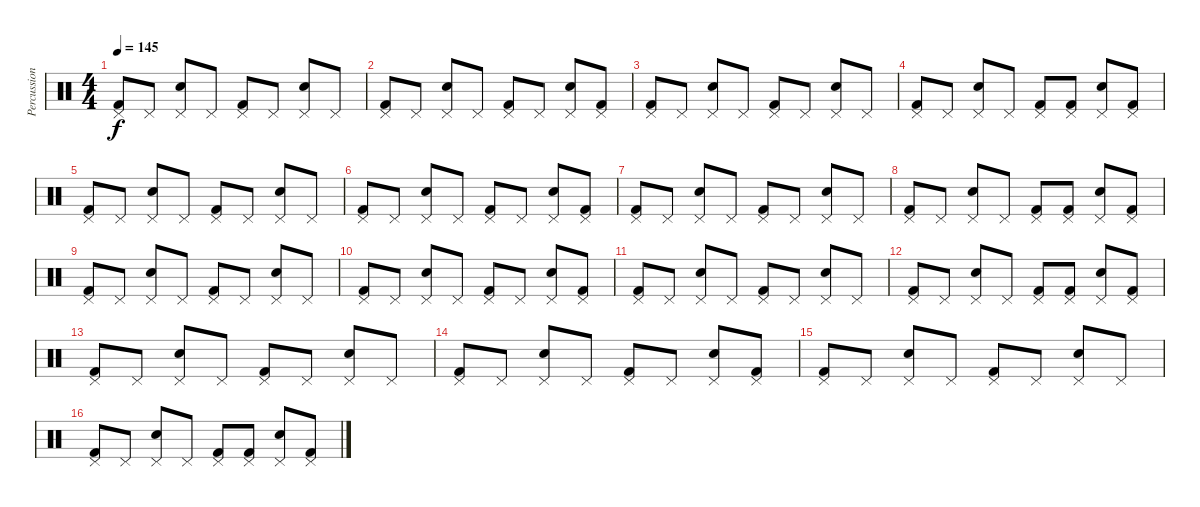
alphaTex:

\track ("Percussion" "Percussion") {instrument percussion}
\staff {score}
\articulation defaults
\ts (4 4)
\tempo 145
\clef neutral
\ks c
("Pedal Hi-Hat (hit)" "Kick (hit) 2").8{dy f} "Pedal Hi-Hat (hit)".8 ("Pedal Hi-Hat (hit)" "Electric Snare (hit)").8 "Pedal Hi-Hat (hit)".8 ("Pedal Hi-Hat (hit)" "Kick (hit) 2").8 "Pedal Hi-Hat (hit)".8 ("Pedal Hi-Hat (hit)" "Electric Snare (hit)").8 "Pedal Hi-Hat (hit)".8 |
("Pedal Hi-Hat (hit)" "Kick (hit) 2").8 "Pedal Hi-Hat (hit)".8 ("Pedal Hi-Hat (hit)" "Electric Snare (hit)").8 "Pedal Hi-Hat (hit)".8 ("Pedal Hi-Hat (hit)" "Kick (hit) 2").8 "Pedal Hi-Hat (hit)".8 ("Pedal Hi-Hat (hit)" "Electric Snare (hit)").8 ("Pedal Hi-Hat (hit)" "Kick (hit) 2").8 |
("Pedal Hi-Hat (hit)" "Kick (hit) 2").8 "Pedal Hi-Hat (hit)".8 ("Pedal Hi-Hat (hit)" "Electric Snare (hit)").8 "Pedal Hi-Hat (hit)".8 ("Pedal Hi-Hat (hit)" "Kick (hit) 2").8 "Pedal Hi-Hat (hit)".8 ("Pedal Hi-Hat (hit)" "Electric Snare (hit)").8 "Pedal Hi-Hat (hit)".8 |
("Pedal Hi-Hat (hit)" "Kick (hit) 2").8 "Pedal Hi-Hat (hit)".8 ("Pedal Hi-Hat (hit)" "Electric Snare (hit)").8 "Pedal Hi-Hat (hit)".8 ("Pedal Hi-Hat (hit)" "Kick (hit) 2").8 ("Pedal Hi-Hat (hit)" "Kick (hit) 2").8 ("Pedal Hi-Hat (hit)" "Electric Snare (hit)").8 ("Pedal Hi-Hat (hit)" "Kick (hit) 2").8 |
("Pedal Hi-Hat (hit)" "Kick (hit) 2").8 "Pedal Hi-Hat (hit)".8 ("Pedal Hi-Hat (hit)" "Electric Snare (hit)").8 "Pedal Hi-Hat (hit)".8 ("Pedal Hi-Hat (hit)" "Kick (hit) 2").8 "Pedal Hi-Hat (hit)".8 ("Pedal Hi-Hat (hit)" "Electric Snare (hit)").8 "Pedal Hi-Hat (hit)".8 |
("Pedal Hi-Hat (hit)" "Kick (hit) 2").8 "Pedal Hi-Hat (hit)".8 ("Pedal Hi-Hat (hit)" "Electric Snare (hit)").8 "Pedal Hi-Hat (hit)".8 ("Pedal Hi-Hat (hit)" "Kick (hit) 2").8 "Pedal Hi-Hat (hit)".8 ("Pedal Hi-Hat (hit)" "Electric Snare (hit)").8 ("Pedal Hi-Hat (hit)" "Kick (hit) 2").8 |
("Pedal Hi-Hat (hit)" "Kick (hit) 2").8 "Pedal Hi-Hat (hit)".8 ("Pedal Hi-Hat (hit)" "Electric Snare (hit)").8 "Pedal Hi-Hat (hit)".8 ("Pedal Hi-Hat (hit)" "Kick (hit) 2").8 "Pedal Hi-Hat (hit)".8 ("Pedal Hi-Hat (hit)" "Electric Snare (hit)").8 "Pedal Hi-Hat (hit)".8 |
("Pedal Hi-Hat (hit)" "Kick (hit) 2").8 "Pedal Hi-Hat (hit)".8 ("Pedal Hi-Hat (hit)" "Electric Snare (hit)").8 "Pedal Hi-Hat (hit)".8 ("Pedal Hi-Hat (hit)" "Kick (hit) 2").8 ("Pedal Hi-Hat (hit)" "Kick (hit) 2").8 ("Pedal Hi-Hat (hit)" "Electric Snare (hit)").8 ("Pedal Hi-Hat (hit)" "Kick (hit) 2").8 |
("Pedal Hi-Hat (hit)" "Kick (hit) 2").8 "Pedal Hi-Hat (hit)".8 ("Pedal Hi-Hat (hit)" "Electric Snare (hit)").8 "Pedal Hi-Hat (hit)".8 ("Pedal Hi-Hat (hit)" "Kick (hit) 2").8 "Pedal Hi-Hat (hit)".8 ("Pedal Hi-Hat (hit)" "Electric Snare (hit)").8 "Pedal Hi-Hat (hit)".8 |
("Pedal Hi-Hat (hit)" "Kick (hit) 2").8 "Pedal Hi-Hat (hit)".8 ("Pedal Hi-Hat (hit)" "Electric Snare (hit)").8 "Pedal Hi-Hat (hit)".8 ("Pedal Hi-Hat (hit)" "Kick (hit) 2").8 "Pedal Hi-Hat (hit)".8 ("Pedal Hi-Hat (hit)" "Electric Snare (hit)").8 ("Pedal Hi-Hat (hit)" "Kick (hit) 2").8 |
("Pedal Hi-Hat (hit)" "Kick (hit) 2").8 "Pedal Hi-Hat (hit)".8 ("Pedal Hi-Hat (hit)" "Electric Snare (hit)").8 "Pedal Hi-Hat (hit)".8 ("Pedal Hi-Hat (hit)" "Kick (hit) 2").8 "Pedal Hi-Hat (hit)".8 ("Pedal Hi-Hat (hit)" "Electric Snare (hit)").8 "Pedal Hi-Hat (hit)".8 |
("Pedal Hi-Hat (hit)" "Kick (hit) 2").8 "Pedal Hi-Hat (hit)".8 ("Pedal Hi-Hat (hit)" "Electric Snare (hit)").8 "Pedal Hi-Hat (hit)".8 ("Pedal Hi-Hat (hit)" "Kick (hit) 2").8 ("Pedal Hi-Hat (hit)" "Kick (hit) 2").8 ("Pedal Hi-Hat (hit)" "Electric Snare (hit)").8 ("Pedal Hi-Hat (hit)" "Kick (hit) 2").8 |
("Pedal Hi-Hat (hit)" "Kick (hit) 2").8 "Pedal Hi-Hat (hit)".8 ("Pedal Hi-Hat (hit)" "Electric Snare (hit)").8 "Pedal Hi-Hat (hit)".8 ("Pedal Hi-Hat (hit)" "Kick (hit) 2").8 "Pedal Hi-Hat (hit)".8 ("Pedal Hi-Hat (hit)" "Electric Snare (hit)").8 "Pedal Hi-Hat (hit)".8 |
("Pedal Hi-Hat (hit)" "Kick (hit) 2").8 "Pedal Hi-Hat (hit)".8 ("Pedal Hi-Hat (hit)" "Electric Snare (hit)").8 "Pedal Hi-Hat (hit)".8 ("Pedal Hi-Hat (hit)" "Kick (hit) 2").8 "Pedal Hi-Hat (hit)".8 ("Pedal Hi-Hat (hit)" "Electric Snare (hit)").8 ("Pedal Hi-Hat (hit)" "Kick (hit) 2").8 |
("Pedal Hi-Hat (hit)" "Kick (hit) 2").8 "Pedal Hi-Hat (hit)".8 ("Pedal Hi-Hat (hit)" "Electric Snare (hit)").8 "Pedal Hi-Hat (hit)".8 ("Pedal Hi-Hat (hit)" "Kick (hit) 2").8 "Pedal Hi-Hat (hit)".8 ("Pedal Hi-Hat (hit)" "Electric Snare (hit)").8 "Pedal Hi-Hat (hit)".8 |
("Pedal Hi-Hat (hit)" "Kick (hit) 2").8 "Pedal Hi-Hat (hit)".8 ("Pedal Hi-Hat (hit)" "Electric Snare (hit)").8 "Pedal Hi-Hat (hit)".8 ("Pedal Hi-Hat (hit)" "Kick (hit) 2").8 ("Pedal Hi-Hat (hit)" "Kick (hit) 2").8 ("Pedal Hi-Hat (hit)" "Electric Snare (hit)").8 ("Pedal Hi-Hat (hit)" "Kick (hit) 2").8
